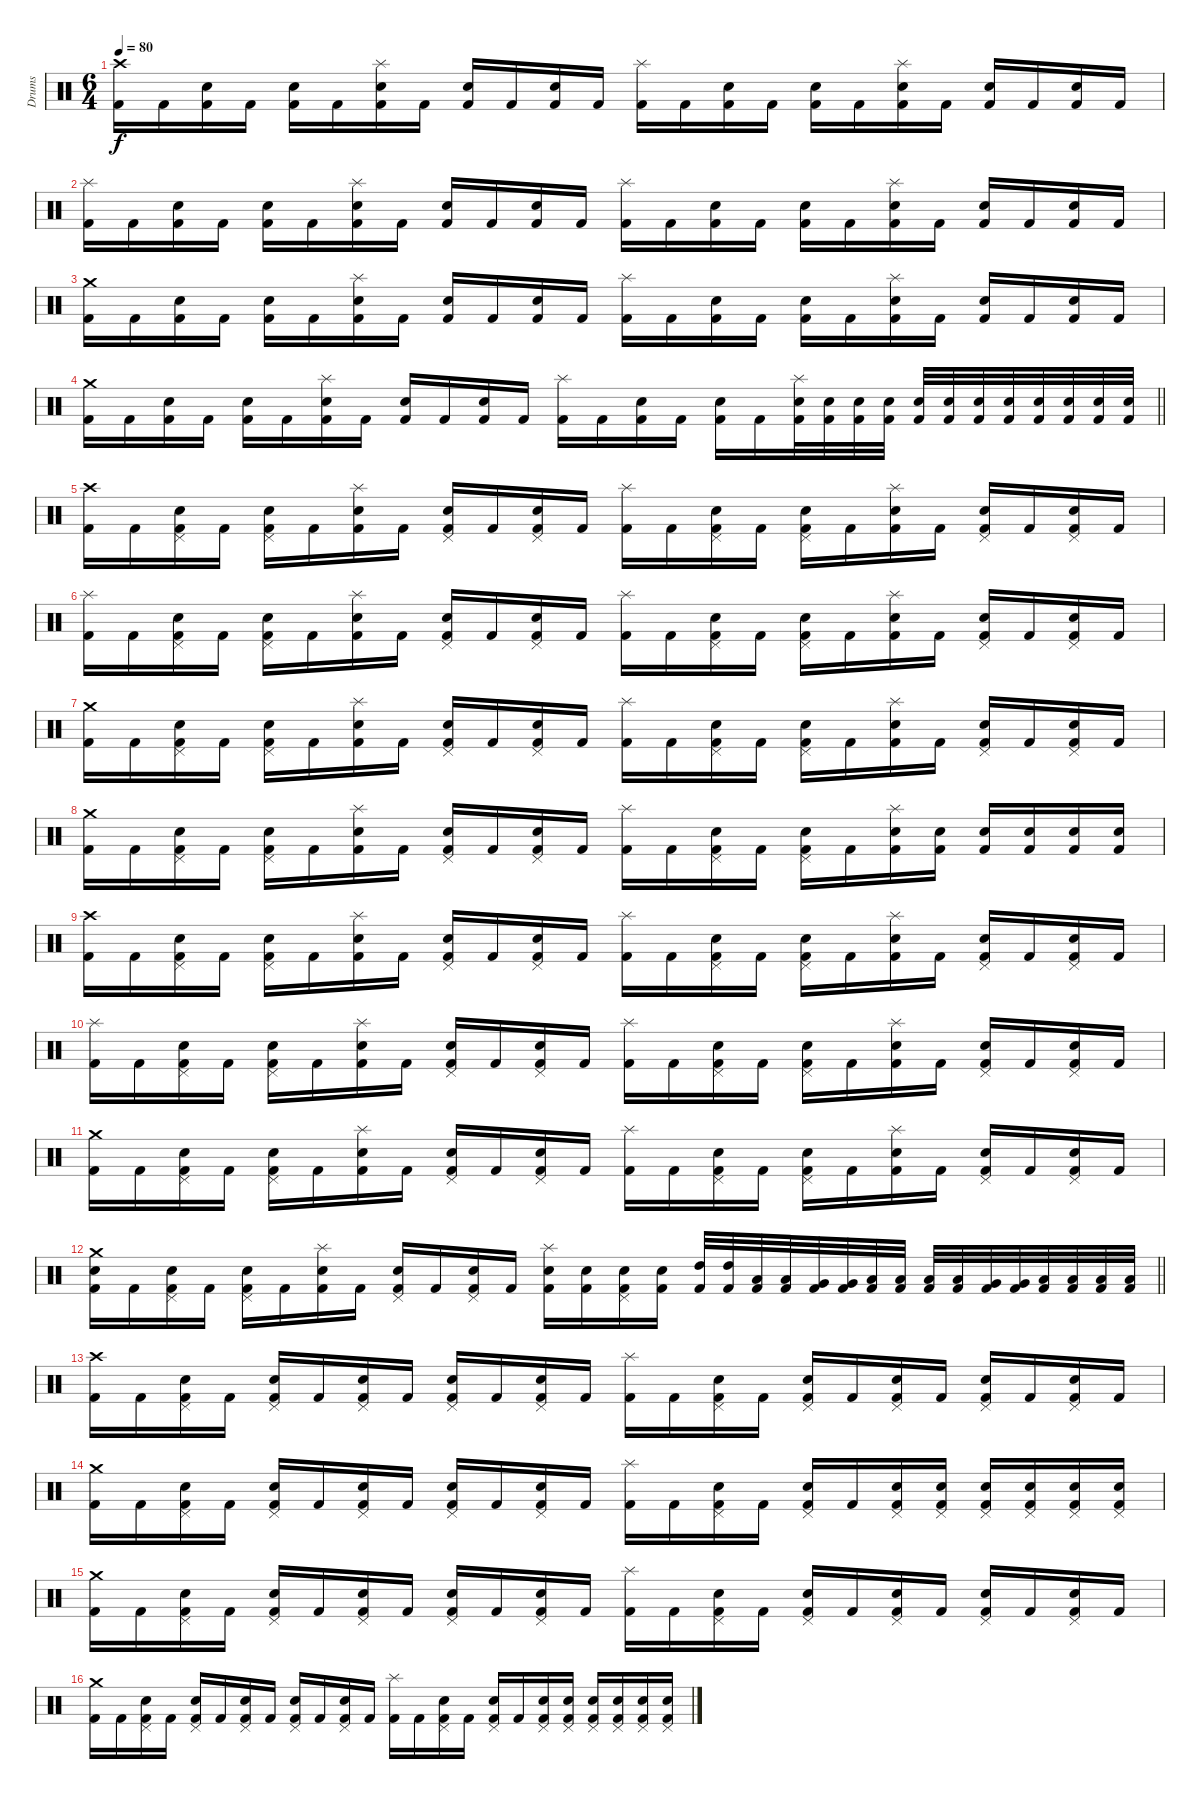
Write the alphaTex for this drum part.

\track ("Drums" "Drums") {instrument percussion}
\staff {score}
\articulation defaults
\ts (6 4)
\tempo 80
\clef neutral
\ks c
("Crash high (hit)" "Kick (hit) 2").16{dy f} "Kick (hit) 2".16 ("Snare (hit) 2" "Kick (hit) 2").16 "Kick (hit) 2".16 ("Snare (hit) 2" "Kick (hit) 2").16 "Kick (hit) 2".16 ("Splash (hit)" "Snare (hit) 2" "Kick (hit) 2").16 "Kick (hit) 2".16 ("Snare (hit) 2" "Kick (hit) 2").16 "Kick (hit) 2".16 ("Snare (hit) 2" "Kick (hit) 2").16 "Kick (hit) 2".16 ("Splash (hit)" "Kick (hit) 2").16 "Kick (hit) 2".16 ("Snare (hit) 2" "Kick (hit) 2").16 "Kick (hit) 2".16 ("Snare (hit) 2" "Kick (hit) 2").16 "Kick (hit) 2".16 ("Splash (hit)" "Snare (hit) 2" "Kick (hit) 2").16 "Kick (hit) 2".16 ("Snare (hit) 2" "Kick (hit) 2").16 "Kick (hit) 2".16 ("Snare (hit) 2" "Kick (hit) 2").16 "Kick (hit) 2".16 |
("Splash (hit)" "Kick (hit) 2").16 "Kick (hit) 2".16 ("Snare (hit) 2" "Kick (hit) 2").16 "Kick (hit) 2".16 ("Snare (hit) 2" "Kick (hit) 2").16 "Kick (hit) 2".16 ("Splash (hit)" "Snare (hit) 2" "Kick (hit) 2").16 "Kick (hit) 2".16 ("Snare (hit) 2" "Kick (hit) 2").16 "Kick (hit) 2".16 ("Snare (hit) 2" "Kick (hit) 2").16 "Kick (hit) 2".16 ("Splash (hit)" "Kick (hit) 2").16 "Kick (hit) 2".16 ("Snare (hit) 2" "Kick (hit) 2").16 "Kick (hit) 2".16 ("Snare (hit) 2" "Kick (hit) 2").16 "Kick (hit) 2".16 ("Splash (hit)" "Snare (hit) 2" "Kick (hit) 2").16 "Kick (hit) 2".16 ("Snare (hit) 2" "Kick (hit) 2").16 "Kick (hit) 2".16 ("Snare (hit) 2" "Kick (hit) 2").16 "Kick (hit) 2".16 |
("Crash medium (hit)" "Kick (hit) 2").16 "Kick (hit) 2".16 ("Snare (hit) 2" "Kick (hit) 2").16 "Kick (hit) 2".16 ("Snare (hit) 2" "Kick (hit) 2").16 "Kick (hit) 2".16 ("Splash (hit)" "Snare (hit) 2" "Kick (hit) 2").16 "Kick (hit) 2".16 ("Snare (hit) 2" "Kick (hit) 2").16 "Kick (hit) 2".16 ("Snare (hit) 2" "Kick (hit) 2").16 "Kick (hit) 2".16 ("Splash (hit)" "Kick (hit) 2").16 "Kick (hit) 2".16 ("Snare (hit) 2" "Kick (hit) 2").16 "Kick (hit) 2".16 ("Snare (hit) 2" "Kick (hit) 2").16 "Kick (hit) 2".16 ("Splash (hit)" "Snare (hit) 2" "Kick (hit) 2").16 "Kick (hit) 2".16 ("Snare (hit) 2" "Kick (hit) 2").16 "Kick (hit) 2".16 ("Snare (hit) 2" "Kick (hit) 2").16 "Kick (hit) 2".16 |
\barLineRight lightlight
("Crash medium (hit)" "Kick (hit) 2").16 "Kick (hit) 2".16 ("Snare (hit) 2" "Kick (hit) 2").16 "Kick (hit) 2".16 ("Snare (hit) 2" "Kick (hit) 2").16 "Kick (hit) 2".16 ("Splash (hit)" "Snare (hit) 2" "Kick (hit) 2").16 "Kick (hit) 2".16 ("Snare (hit) 2" "Kick (hit) 2").16 "Kick (hit) 2".16 ("Snare (hit) 2" "Kick (hit) 2").16 "Kick (hit) 2".16 ("Splash (hit)" "Kick (hit) 2").16 "Kick (hit) 2".16 ("Snare (hit) 2" "Kick (hit) 2").16 "Kick (hit) 2".16 ("Snare (hit) 2" "Kick (hit) 2").16 "Kick (hit) 2".16 ("Splash (hit)" "Snare (hit) 2" "Kick (hit) 2").32 ("Snare (hit) 2" "Kick (hit) 2").32 ("Snare (hit) 2" "Kick (hit) 2").32 ("Snare (hit) 2" "Kick (hit) 2").32 ("Snare (hit) 2" "Kick (hit) 2").32 ("Snare (hit) 2" "Kick (hit) 2").32 ("Snare (hit) 2" "Kick (hit) 2").32 ("Snare (hit) 2" "Kick (hit) 2").32 ("Snare (hit) 2" "Kick (hit) 2").32 ("Snare (hit) 2" "Kick (hit) 2").32 ("Snare (hit) 2" "Kick (hit) 2").32 ("Snare (hit) 2" "Kick (hit) 2").32 |
\section ("" "")
("Crash high (hit)" "Kick (hit) 2").16 "Kick (hit) 2".16 ("Pedal Hi-Hat (hit)" "Snare (hit) 2" "Kick (hit) 2").16 "Kick (hit) 2".16 ("Pedal Hi-Hat (hit)" "Snare (hit) 2" "Kick (hit) 2").16 "Kick (hit) 2".16 ("Splash (hit)" "Snare (hit) 2" "Kick (hit) 2").16 "Kick (hit) 2".16 ("Pedal Hi-Hat (hit)" "Snare (hit) 2" "Kick (hit) 2").16 "Kick (hit) 2".16 ("Pedal Hi-Hat (hit)" "Snare (hit) 2" "Kick (hit) 2").16 "Kick (hit) 2".16 ("Splash (hit)" "Kick (hit) 2").16 "Kick (hit) 2".16 ("Pedal Hi-Hat (hit)" "Snare (hit) 2" "Kick (hit) 2").16 "Kick (hit) 2".16 ("Pedal Hi-Hat (hit)" "Snare (hit) 2" "Kick (hit) 2").16 "Kick (hit) 2".16 ("Splash (hit)" "Snare (hit) 2" "Kick (hit) 2").16 "Kick (hit) 2".16 ("Pedal Hi-Hat (hit)" "Snare (hit) 2" "Kick (hit) 2").16 "Kick (hit) 2".16 ("Pedal Hi-Hat (hit)" "Snare (hit) 2" "Kick (hit) 2").16 "Kick (hit) 2".16 |
("Splash (hit)" "Kick (hit) 2").16 "Kick (hit) 2".16 ("Pedal Hi-Hat (hit)" "Snare (hit) 2" "Kick (hit) 2").16 "Kick (hit) 2".16 ("Pedal Hi-Hat (hit)" "Snare (hit) 2" "Kick (hit) 2").16 "Kick (hit) 2".16 ("Splash (hit)" "Snare (hit) 2" "Kick (hit) 2").16 "Kick (hit) 2".16 ("Pedal Hi-Hat (hit)" "Snare (hit) 2" "Kick (hit) 2").16 "Kick (hit) 2".16 ("Pedal Hi-Hat (hit)" "Snare (hit) 2" "Kick (hit) 2").16 "Kick (hit) 2".16 ("Splash (hit)" "Kick (hit) 2").16 "Kick (hit) 2".16 ("Pedal Hi-Hat (hit)" "Snare (hit) 2" "Kick (hit) 2").16 "Kick (hit) 2".16 ("Pedal Hi-Hat (hit)" "Snare (hit) 2" "Kick (hit) 2").16 "Kick (hit) 2".16 ("Splash (hit)" "Snare (hit) 2" "Kick (hit) 2").16 "Kick (hit) 2".16 ("Pedal Hi-Hat (hit)" "Snare (hit) 2" "Kick (hit) 2").16 "Kick (hit) 2".16 ("Pedal Hi-Hat (hit)" "Snare (hit) 2" "Kick (hit) 2").16 "Kick (hit) 2".16 |
("Crash medium (hit)" "Kick (hit) 2").16 "Kick (hit) 2".16 ("Pedal Hi-Hat (hit)" "Snare (hit) 2" "Kick (hit) 2").16 "Kick (hit) 2".16 ("Pedal Hi-Hat (hit)" "Snare (hit) 2" "Kick (hit) 2").16 "Kick (hit) 2".16 ("Splash (hit)" "Snare (hit) 2" "Kick (hit) 2").16 "Kick (hit) 2".16 ("Pedal Hi-Hat (hit)" "Snare (hit) 2" "Kick (hit) 2").16 "Kick (hit) 2".16 ("Pedal Hi-Hat (hit)" "Snare (hit) 2" "Kick (hit) 2").16 "Kick (hit) 2".16 ("Splash (hit)" "Kick (hit) 2").16 "Kick (hit) 2".16 ("Pedal Hi-Hat (hit)" "Snare (hit) 2" "Kick (hit) 2").16 "Kick (hit) 2".16 ("Pedal Hi-Hat (hit)" "Snare (hit) 2" "Kick (hit) 2").16 "Kick (hit) 2".16 ("Splash (hit)" "Snare (hit) 2" "Kick (hit) 2").16 "Kick (hit) 2".16 ("Pedal Hi-Hat (hit)" "Snare (hit) 2" "Kick (hit) 2").16 "Kick (hit) 2".16 ("Pedal Hi-Hat (hit)" "Snare (hit) 2" "Kick (hit) 2").16 "Kick (hit) 2".16 |
("Crash medium (hit)" "Kick (hit) 2").16 "Kick (hit) 2".16 ("Pedal Hi-Hat (hit)" "Snare (hit) 2" "Kick (hit) 2").16 "Kick (hit) 2".16 ("Pedal Hi-Hat (hit)" "Snare (hit) 2" "Kick (hit) 2").16 "Kick (hit) 2".16 ("Splash (hit)" "Snare (hit) 2" "Kick (hit) 2").16 "Kick (hit) 2".16 ("Pedal Hi-Hat (hit)" "Snare (hit) 2" "Kick (hit) 2").16 "Kick (hit) 2".16 ("Pedal Hi-Hat (hit)" "Snare (hit) 2" "Kick (hit) 2").16 "Kick (hit) 2".16 ("Splash (hit)" "Kick (hit) 2").16 "Kick (hit) 2".16 ("Pedal Hi-Hat (hit)" "Snare (hit) 2" "Kick (hit) 2").16 "Kick (hit) 2".16 ("Pedal Hi-Hat (hit)" "Snare (hit) 2" "Kick (hit) 2").16 "Kick (hit) 2".16 ("Splash (hit)" "Snare (hit) 2" "Kick (hit) 2").16 ("Snare (hit) 2" "Kick (hit) 2").16 ("Snare (hit) 2" "Kick (hit) 2").16 ("Snare (hit) 2" "Kick (hit) 2").16 ("Snare (hit) 2" "Kick (hit) 2").16 ("Snare (hit) 2" "Kick (hit) 2").16 |
("Crash high (hit)" "Kick (hit) 2").16 "Kick (hit) 2".16 ("Pedal Hi-Hat (hit)" "Snare (hit) 2" "Kick (hit) 2").16 "Kick (hit) 2".16 ("Pedal Hi-Hat (hit)" "Snare (hit) 2" "Kick (hit) 2").16 "Kick (hit) 2".16 ("Splash (hit)" "Snare (hit) 2" "Kick (hit) 2").16 "Kick (hit) 2".16 ("Pedal Hi-Hat (hit)" "Snare (hit) 2" "Kick (hit) 2").16 "Kick (hit) 2".16 ("Pedal Hi-Hat (hit)" "Snare (hit) 2" "Kick (hit) 2").16 "Kick (hit) 2".16 ("Splash (hit)" "Kick (hit) 2").16 "Kick (hit) 2".16 ("Pedal Hi-Hat (hit)" "Snare (hit) 2" "Kick (hit) 2").16 "Kick (hit) 2".16 ("Pedal Hi-Hat (hit)" "Snare (hit) 2" "Kick (hit) 2").16 "Kick (hit) 2".16 ("Splash (hit)" "Snare (hit) 2" "Kick (hit) 2").16 "Kick (hit) 2".16 ("Pedal Hi-Hat (hit)" "Snare (hit) 2" "Kick (hit) 2").16 "Kick (hit) 2".16 ("Pedal Hi-Hat (hit)" "Snare (hit) 2" "Kick (hit) 2").16 "Kick (hit) 2".16 |
("Splash (hit)" "Kick (hit) 2").16 "Kick (hit) 2".16 ("Pedal Hi-Hat (hit)" "Snare (hit) 2" "Kick (hit) 2").16 "Kick (hit) 2".16 ("Pedal Hi-Hat (hit)" "Snare (hit) 2" "Kick (hit) 2").16 "Kick (hit) 2".16 ("Splash (hit)" "Snare (hit) 2" "Kick (hit) 2").16 "Kick (hit) 2".16 ("Pedal Hi-Hat (hit)" "Snare (hit) 2" "Kick (hit) 2").16 "Kick (hit) 2".16 ("Pedal Hi-Hat (hit)" "Snare (hit) 2" "Kick (hit) 2").16 "Kick (hit) 2".16 ("Splash (hit)" "Kick (hit) 2").16 "Kick (hit) 2".16 ("Pedal Hi-Hat (hit)" "Snare (hit) 2" "Kick (hit) 2").16 "Kick (hit) 2".16 ("Pedal Hi-Hat (hit)" "Snare (hit) 2" "Kick (hit) 2").16 "Kick (hit) 2".16 ("Splash (hit)" "Snare (hit) 2" "Kick (hit) 2").16 "Kick (hit) 2".16 ("Pedal Hi-Hat (hit)" "Snare (hit) 2" "Kick (hit) 2").16 "Kick (hit) 2".16 ("Pedal Hi-Hat (hit)" "Snare (hit) 2" "Kick (hit) 2").16 "Kick (hit) 2".16 |
("Crash medium (hit)" "Kick (hit) 2").16 "Kick (hit) 2".16 ("Pedal Hi-Hat (hit)" "Snare (hit) 2" "Kick (hit) 2").16 "Kick (hit) 2".16 ("Pedal Hi-Hat (hit)" "Snare (hit) 2" "Kick (hit) 2").16 "Kick (hit) 2".16 ("Splash (hit)" "Snare (hit) 2" "Kick (hit) 2").16 "Kick (hit) 2".16 ("Pedal Hi-Hat (hit)" "Snare (hit) 2" "Kick (hit) 2").16 "Kick (hit) 2".16 ("Pedal Hi-Hat (hit)" "Snare (hit) 2" "Kick (hit) 2").16 "Kick (hit) 2".16 ("Splash (hit)" "Kick (hit) 2").16 "Kick (hit) 2".16 ("Pedal Hi-Hat (hit)" "Snare (hit) 2" "Kick (hit) 2").16 "Kick (hit) 2".16 ("Pedal Hi-Hat (hit)" "Snare (hit) 2" "Kick (hit) 2").16 "Kick (hit) 2".16 ("Splash (hit)" "Snare (hit) 2" "Kick (hit) 2").16 "Kick (hit) 2".16 ("Pedal Hi-Hat (hit)" "Snare (hit) 2" "Kick (hit) 2").16 "Kick (hit) 2".16 ("Pedal Hi-Hat (hit)" "Snare (hit) 2" "Kick (hit) 2").16 "Kick (hit) 2".16 |
\barLineRight lightlight
("Crash medium (hit)" "Snare (hit) 2" "Kick (hit) 2").16 "Kick (hit) 2".16 ("Pedal Hi-Hat (hit)" "Snare (hit) 2" "Kick (hit) 2").16 "Kick (hit) 2".16 ("Pedal Hi-Hat (hit)" "Snare (hit) 2" "Kick (hit) 2").16 "Kick (hit) 2".16 ("Splash (hit)" "Snare (hit) 2" "Kick (hit) 2").16 "Kick (hit) 2".16 ("Pedal Hi-Hat (hit)" "Snare (hit) 2" "Kick (hit) 2").16 "Kick (hit) 2".16 ("Pedal Hi-Hat (hit)" "Snare (hit) 2" "Kick (hit) 2").16 "Kick (hit) 2".16 ("Splash (hit)" "Snare (hit) 2" "Kick (hit) 2").16 ("Snare (hit) 2" "Kick (hit) 2").16 ("Pedal Hi-Hat (hit)" "Snare (hit) 2" "Kick (hit) 2").16 ("Snare (hit) 2" "Kick (hit) 2").16 ("High Tom (hit)" "Kick (hit) 2").32 ("High Tom (hit)" "Kick (hit) 2").32 ("Low Tom (hit)" "Kick (hit) 2").32 ("Low Tom (hit)" "Kick (hit) 2").32 ("Very Low Tom (hit)" "Kick (hit) 2").32 ("Very Low Tom (hit)" "Kick (hit) 2").32 ("Low Floor Tom (hit)" "Kick (hit) 2").32 ("Low Floor Tom (hit)" "Kick (hit) 2").32 ("Low Tom (hit)" "Kick (hit) 2").32 ("Low Tom (hit)" "Kick (hit) 2").32 ("Very Low Tom (hit)" "Kick (hit) 2").32 ("Very Low Tom (hit)" "Kick (hit) 2").32 ("Low Floor Tom (hit)" "Kick (hit) 2").32 ("Low Floor Tom (hit)" "Kick (hit) 2").32 ("Low Floor Tom (hit)" "Kick (hit) 2").32 ("Low Floor Tom (hit)" "Kick (hit) 2").32 |
\section ("" "")
("Crash high (hit)" "Kick (hit) 2").16 "Kick (hit) 2".16 ("Pedal Hi-Hat (hit)" "Snare (hit) 2" "Kick (hit) 2").16 "Kick (hit) 2".16 ("Pedal Hi-Hat (hit)" "Snare (hit) 2" "Kick (hit) 2").16 "Kick (hit) 2".16 ("Pedal Hi-Hat (hit)" "Snare (hit) 2" "Kick (hit) 2").16 "Kick (hit) 2".16 ("Pedal Hi-Hat (hit)" "Snare (hit) 2" "Kick (hit) 2").16 "Kick (hit) 2".16 ("Pedal Hi-Hat (hit)" "Snare (hit) 2" "Kick (hit) 2").16 "Kick (hit) 2".16 ("Splash (hit)" "Kick (hit) 2").16 "Kick (hit) 2".16 ("Pedal Hi-Hat (hit)" "Snare (hit) 2" "Kick (hit) 2").16 "Kick (hit) 2".16 ("Pedal Hi-Hat (hit)" "Snare (hit) 2" "Kick (hit) 2").16 "Kick (hit) 2".16 ("Pedal Hi-Hat (hit)" "Snare (hit) 2" "Kick (hit) 2").16 "Kick (hit) 2".16 ("Pedal Hi-Hat (hit)" "Snare (hit) 2" "Kick (hit) 2").16 "Kick (hit) 2".16 ("Pedal Hi-Hat (hit)" "Snare (hit) 2" "Kick (hit) 2").16 "Kick (hit) 2".16 |
("Crash medium (hit)" "Kick (hit) 2").16 "Kick (hit) 2".16 ("Pedal Hi-Hat (hit)" "Snare (hit) 2" "Kick (hit) 2").16 "Kick (hit) 2".16 ("Pedal Hi-Hat (hit)" "Snare (hit) 2" "Kick (hit) 2").16 "Kick (hit) 2".16 ("Pedal Hi-Hat (hit)" "Snare (hit) 2" "Kick (hit) 2").16 "Kick (hit) 2".16 ("Pedal Hi-Hat (hit)" "Snare (hit) 2" "Kick (hit) 2").16 "Kick (hit) 2".16 ("Pedal Hi-Hat (hit)" "Snare (hit) 2" "Kick (hit) 2").16 "Kick (hit) 2".16 ("Splash (hit)" "Kick (hit) 2").16 "Kick (hit) 2".16 ("Pedal Hi-Hat (hit)" "Snare (hit) 2" "Kick (hit) 2").16 "Kick (hit) 2".16 ("Pedal Hi-Hat (hit)" "Snare (hit) 2" "Kick (hit) 2").16 "Kick (hit) 2".16 ("Pedal Hi-Hat (hit)" "Snare (hit) 2" "Kick (hit) 2").16 ("Pedal Hi-Hat (hit)" "Snare (hit) 2" "Kick (hit) 2").16 ("Pedal Hi-Hat (hit)" "Snare (hit) 2" "Kick (hit) 2").16 ("Pedal Hi-Hat (hit)" "Snare (hit) 2" "Kick (hit) 2").16 ("Pedal Hi-Hat (hit)" "Snare (hit) 2" "Kick (hit) 2").16 ("Pedal Hi-Hat (hit)" "Snare (hit) 2" "Kick (hit) 2").16 |
("Crash medium (hit)" "Kick (hit) 2").16 "Kick (hit) 2".16 ("Pedal Hi-Hat (hit)" "Snare (hit) 2" "Kick (hit) 2").16 "Kick (hit) 2".16 ("Pedal Hi-Hat (hit)" "Snare (hit) 2" "Kick (hit) 2").16 "Kick (hit) 2".16 ("Pedal Hi-Hat (hit)" "Snare (hit) 2" "Kick (hit) 2").16 "Kick (hit) 2".16 ("Pedal Hi-Hat (hit)" "Snare (hit) 2" "Kick (hit) 2").16 "Kick (hit) 2".16 ("Pedal Hi-Hat (hit)" "Snare (hit) 2" "Kick (hit) 2").16 "Kick (hit) 2".16 ("Splash (hit)" "Kick (hit) 2").16 "Kick (hit) 2".16 ("Pedal Hi-Hat (hit)" "Snare (hit) 2" "Kick (hit) 2").16 "Kick (hit) 2".16 ("Pedal Hi-Hat (hit)" "Snare (hit) 2" "Kick (hit) 2").16 "Kick (hit) 2".16 ("Pedal Hi-Hat (hit)" "Snare (hit) 2" "Kick (hit) 2").16 "Kick (hit) 2".16 ("Pedal Hi-Hat (hit)" "Snare (hit) 2" "Kick (hit) 2").16 "Kick (hit) 2".16 ("Pedal Hi-Hat (hit)" "Snare (hit) 2" "Kick (hit) 2").16 "Kick (hit) 2".16 |
("Crash medium (hit)" "Kick (hit) 2").16 "Kick (hit) 2".16 ("Pedal Hi-Hat (hit)" "Snare (hit) 2" "Kick (hit) 2").16 "Kick (hit) 2".16 ("Pedal Hi-Hat (hit)" "Snare (hit) 2" "Kick (hit) 2").16 "Kick (hit) 2".16 ("Pedal Hi-Hat (hit)" "Snare (hit) 2" "Kick (hit) 2").16 "Kick (hit) 2".16 ("Pedal Hi-Hat (hit)" "Snare (hit) 2" "Kick (hit) 2").16 "Kick (hit) 2".16 ("Pedal Hi-Hat (hit)" "Snare (hit) 2" "Kick (hit) 2").16 "Kick (hit) 2".16 ("Splash (hit)" "Kick (hit) 2").16 "Kick (hit) 2".16 ("Pedal Hi-Hat (hit)" "Snare (hit) 2" "Kick (hit) 2").16 "Kick (hit) 2".16 ("Pedal Hi-Hat (hit)" "Snare (hit) 2" "Kick (hit) 2").16 "Kick (hit) 2".16 ("Pedal Hi-Hat (hit)" "Snare (hit) 2" "Kick (hit) 2").16 ("Pedal Hi-Hat (hit)" "Snare (hit) 2" "Kick (hit) 2").16 ("Pedal Hi-Hat (hit)" "Snare (hit) 2" "Kick (hit) 2").16 ("Pedal Hi-Hat (hit)" "Snare (hit) 2" "Kick (hit) 2").16 ("Pedal Hi-Hat (hit)" "Snare (hit) 2" "Kick (hit) 2").16 ("Pedal Hi-Hat (hit)" "Snare (hit) 2" "Kick (hit) 2").16
